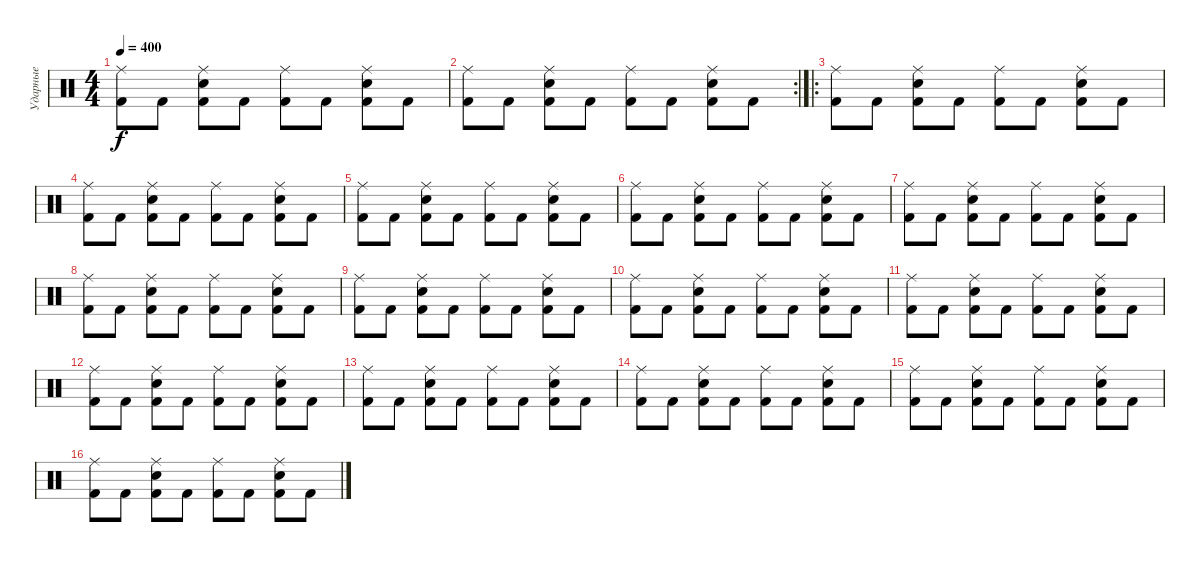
\track ("Ударные" "Ударные") {instrument percussion}
\staff {score}
\articulation defaults
\ts (4 4)
\tempo 400
\clef neutral
\ks c
("Ride (middle)" "Kick (hit) 2").8{dy f} "Kick (hit) 2".8 ("Ride (middle)" "Snare (hit) 2" "Kick (hit) 2").8 "Kick (hit) 2".8 ("Ride (middle)" "Kick (hit) 2").8 "Kick (hit) 2".8 ("Ride (middle)" "Snare (hit) 2" "Kick (hit) 2").8 "Kick (hit) 2".8 |
\rc 2
("Ride (middle)" "Kick (hit) 2").8 "Kick (hit) 2".8 ("Ride (middle)" "Snare (hit) 2" "Kick (hit) 2").8 "Kick (hit) 2".8 ("Ride (middle)" "Kick (hit) 2").8 "Kick (hit) 2".8 ("Ride (middle)" "Snare (hit) 2" "Kick (hit) 2").8 "Kick (hit) 2".8 |
\ro
("Ride (middle)" "Kick (hit) 2").8 "Kick (hit) 2".8 ("Ride (middle)" "Snare (hit) 2" "Kick (hit) 2").8 "Kick (hit) 2".8 ("Ride (middle)" "Kick (hit) 2").8 "Kick (hit) 2".8 ("Ride (middle)" "Snare (hit) 2" "Kick (hit) 2").8 "Kick (hit) 2".8 |
("Ride (middle)" "Kick (hit) 2").8 "Kick (hit) 2".8 ("Ride (middle)" "Snare (hit) 2" "Kick (hit) 2").8 "Kick (hit) 2".8 ("Ride (middle)" "Kick (hit) 2").8 "Kick (hit) 2".8 ("Ride (middle)" "Snare (hit) 2" "Kick (hit) 2").8 "Kick (hit) 2".8 |
("Ride (middle)" "Kick (hit) 2").8 "Kick (hit) 2".8 ("Ride (middle)" "Snare (hit) 2" "Kick (hit) 2").8 "Kick (hit) 2".8 ("Ride (middle)" "Kick (hit) 2").8 "Kick (hit) 2".8 ("Ride (middle)" "Snare (hit) 2" "Kick (hit) 2").8 "Kick (hit) 2".8 |
("Ride (middle)" "Kick (hit) 2").8 "Kick (hit) 2".8 ("Ride (middle)" "Snare (hit) 2" "Kick (hit) 2").8 "Kick (hit) 2".8 ("Ride (middle)" "Kick (hit) 2").8 "Kick (hit) 2".8 ("Ride (middle)" "Snare (hit) 2" "Kick (hit) 2").8 "Kick (hit) 2".8 |
("Ride (middle)" "Kick (hit) 2").8 "Kick (hit) 2".8 ("Ride (middle)" "Snare (hit) 2" "Kick (hit) 2").8 "Kick (hit) 2".8 ("Ride (middle)" "Kick (hit) 2").8 "Kick (hit) 2".8 ("Ride (middle)" "Snare (hit) 2" "Kick (hit) 2").8 "Kick (hit) 2".8 |
("Ride (middle)" "Kick (hit) 2").8 "Kick (hit) 2".8 ("Ride (middle)" "Snare (hit) 2" "Kick (hit) 2").8 "Kick (hit) 2".8 ("Ride (middle)" "Kick (hit) 2").8 "Kick (hit) 2".8 ("Ride (middle)" "Snare (hit) 2" "Kick (hit) 2").8 "Kick (hit) 2".8 |
("Ride (middle)" "Kick (hit) 2").8 "Kick (hit) 2".8 ("Ride (middle)" "Snare (hit) 2" "Kick (hit) 2").8 "Kick (hit) 2".8 ("Ride (middle)" "Kick (hit) 2").8 "Kick (hit) 2".8 ("Ride (middle)" "Snare (hit) 2" "Kick (hit) 2").8 "Kick (hit) 2".8 |
("Ride (middle)" "Kick (hit) 2").8 "Kick (hit) 2".8 ("Ride (middle)" "Snare (hit) 2" "Kick (hit) 2").8 "Kick (hit) 2".8 ("Ride (middle)" "Kick (hit) 2").8 "Kick (hit) 2".8 ("Ride (middle)" "Snare (hit) 2" "Kick (hit) 2").8 "Kick (hit) 2".8 |
("Ride (middle)" "Kick (hit) 2").8 "Kick (hit) 2".8 ("Ride (middle)" "Snare (hit) 2" "Kick (hit) 2").8 "Kick (hit) 2".8 ("Ride (middle)" "Kick (hit) 2").8 "Kick (hit) 2".8 ("Ride (middle)" "Snare (hit) 2" "Kick (hit) 2").8 "Kick (hit) 2".8 |
("Ride (middle)" "Kick (hit) 2").8 "Kick (hit) 2".8 ("Ride (middle)" "Snare (hit) 2" "Kick (hit) 2").8 "Kick (hit) 2".8 ("Ride (middle)" "Kick (hit) 2").8 "Kick (hit) 2".8 ("Ride (middle)" "Snare (hit) 2" "Kick (hit) 2").8 "Kick (hit) 2".8 |
("Ride (middle)" "Kick (hit) 2").8 "Kick (hit) 2".8 ("Ride (middle)" "Snare (hit) 2" "Kick (hit) 2").8 "Kick (hit) 2".8 ("Ride (middle)" "Kick (hit) 2").8 "Kick (hit) 2".8 ("Ride (middle)" "Snare (hit) 2" "Kick (hit) 2").8 "Kick (hit) 2".8 |
("Ride (middle)" "Kick (hit) 2").8 "Kick (hit) 2".8 ("Ride (middle)" "Snare (hit) 2" "Kick (hit) 2").8 "Kick (hit) 2".8 ("Ride (middle)" "Kick (hit) 2").8 "Kick (hit) 2".8 ("Ride (middle)" "Snare (hit) 2" "Kick (hit) 2").8 "Kick (hit) 2".8 |
("Ride (middle)" "Kick (hit) 2").8 "Kick (hit) 2".8 ("Ride (middle)" "Snare (hit) 2" "Kick (hit) 2").8 "Kick (hit) 2".8 ("Ride (middle)" "Kick (hit) 2").8 "Kick (hit) 2".8 ("Ride (middle)" "Snare (hit) 2" "Kick (hit) 2").8 "Kick (hit) 2".8 |
("Ride (middle)" "Kick (hit) 2").8 "Kick (hit) 2".8 ("Ride (middle)" "Snare (hit) 2" "Kick (hit) 2").8 "Kick (hit) 2".8 ("Ride (middle)" "Kick (hit) 2").8 "Kick (hit) 2".8 ("Ride (middle)" "Snare (hit) 2" "Kick (hit) 2").8 "Kick (hit) 2".8
